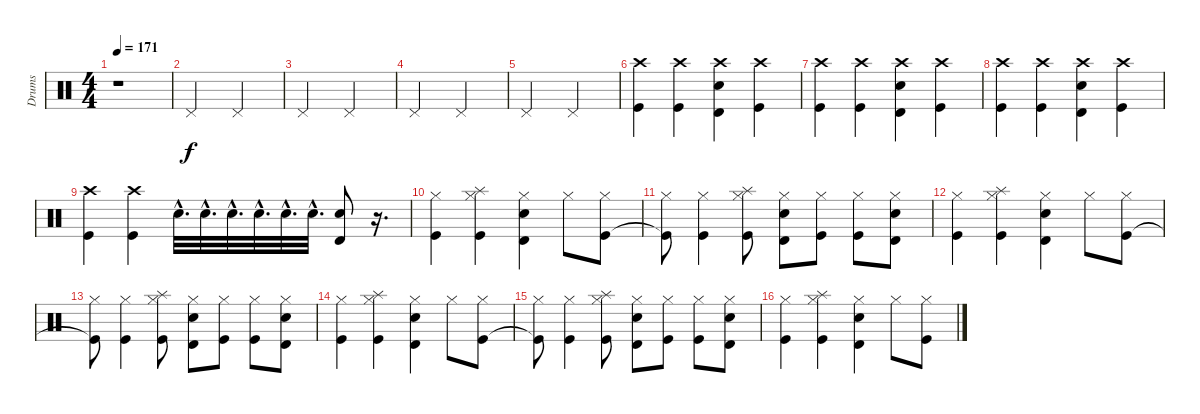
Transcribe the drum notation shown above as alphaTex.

\track ("Drums" "Drums") {instrument percussion}
\staff {score}
\articulation defaults
\ts (4 4)
\tempo 171
\clef neutral
\ks c
r.1{dy f} |
"Pedal Hi-Hat (hit)".2 "Pedal Hi-Hat (hit)".2 |
"Pedal Hi-Hat (hit)".2 "Pedal Hi-Hat (hit)".2 |
"Pedal Hi-Hat (hit)".2 "Pedal Hi-Hat (hit)".2 |
"Pedal Hi-Hat (hit)".2 "Pedal Hi-Hat (hit)".2 |
("Crash high (hit)" "Kick (hit)").4 ("Crash high (hit)" "Kick (hit)").4 ("Crash high (hit)" "Timbale high (hit)" "Electric Snare (hit)").4 ("Crash high (hit)" "Kick (hit)").4 |
("Crash high (hit)" "Kick (hit)").4 ("Crash high (hit)" "Kick (hit)").4 ("Crash high (hit)" "Timbale high (hit)" "Electric Snare (hit)").4 ("Crash high (hit)" "Kick (hit)").4 |
("Crash high (hit)" "Kick (hit)").4 ("Crash high (hit)" "Kick (hit)").4 ("Crash high (hit)" "Timbale high (hit)" "Electric Snare (hit)").4 ("Crash high (hit)" "Kick (hit)").4 |
("Crash high (hit)" "Kick (hit)").4 ("Crash high (hit)" "Kick (hit)").4 "Electric Snare (hit)"{hac}.32{d} "Electric Snare (hit)"{hac}.32{d} "Electric Snare (hit)"{hac}.32{d} "Electric Snare (hit)"{hac}.32{d} "Electric Snare (hit)"{hac}.32{d} "Electric Snare (hit)"{hac}.32{d} ("Electric Snare (hit)" "Timbale high (hit)").8 r.16{d} |
("Hi-Hat (closed)" "Kick (hit)").4 ("Hi-Hat (closed)" "Splash (hit)" "Kick (hit)").4 ("Hi-Hat (closed)" "Timbale high (hit)" "Electric Snare (hit)").4 "Hi-Hat (closed)".8 ("Hi-Hat (closed)" "Kick (hit)").8 |
("Hi-Hat (closed)" "Kick (hit)"{t}).8 ("Hi-Hat (closed)" "Kick (hit)").4 ("Hi-Hat (closed)" "Splash (hit)" "Kick (hit)").8 ("Hi-Hat (closed)" "Timbale high (hit)" "Electric Snare (hit)").8 ("Hi-Hat (closed)" "Kick (hit)").8 ("Hi-Hat (closed)" "Kick (hit)").8 ("Hi-Hat (closed)" "Timbale high (hit)" "Electric Snare (hit)").8 |
("Hi-Hat (closed)" "Kick (hit)").4 ("Hi-Hat (closed)" "Splash (hit)" "Kick (hit)").4 ("Hi-Hat (closed)" "Timbale high (hit)" "Electric Snare (hit)").4 "Hi-Hat (closed)".8 ("Hi-Hat (closed)" "Kick (hit)").8 |
("Hi-Hat (closed)" "Kick (hit)"{t}).8 ("Hi-Hat (closed)" "Kick (hit)").4 ("Hi-Hat (closed)" "Splash (hit)" "Kick (hit)").8 ("Hi-Hat (closed)" "Timbale high (hit)" "Electric Snare (hit)").8 ("Hi-Hat (closed)" "Kick (hit)").8 ("Hi-Hat (closed)" "Kick (hit)").8 ("Hi-Hat (closed)" "Timbale high (hit)" "Electric Snare (hit)").8 |
("Hi-Hat (closed)" "Kick (hit)").4 ("Hi-Hat (closed)" "Splash (hit)" "Kick (hit)").4 ("Hi-Hat (closed)" "Timbale high (hit)" "Electric Snare (hit)").4 "Hi-Hat (closed)".8 ("Hi-Hat (closed)" "Kick (hit)").8 |
("Hi-Hat (closed)" "Kick (hit)"{t}).8 ("Hi-Hat (closed)" "Kick (hit)").4 ("Hi-Hat (closed)" "Splash (hit)" "Kick (hit)").8 ("Hi-Hat (closed)" "Timbale high (hit)" "Electric Snare (hit)").8 ("Hi-Hat (closed)" "Kick (hit)").8 ("Hi-Hat (closed)" "Kick (hit)").8 ("Hi-Hat (closed)" "Timbale high (hit)" "Electric Snare (hit)").8 |
("Hi-Hat (closed)" "Kick (hit)").4 ("Hi-Hat (closed)" "Splash (hit)" "Kick (hit)").4 ("Hi-Hat (closed)" "Timbale high (hit)" "Electric Snare (hit)").4 "Hi-Hat (closed)".8 ("Hi-Hat (closed)" "Kick (hit)").8
